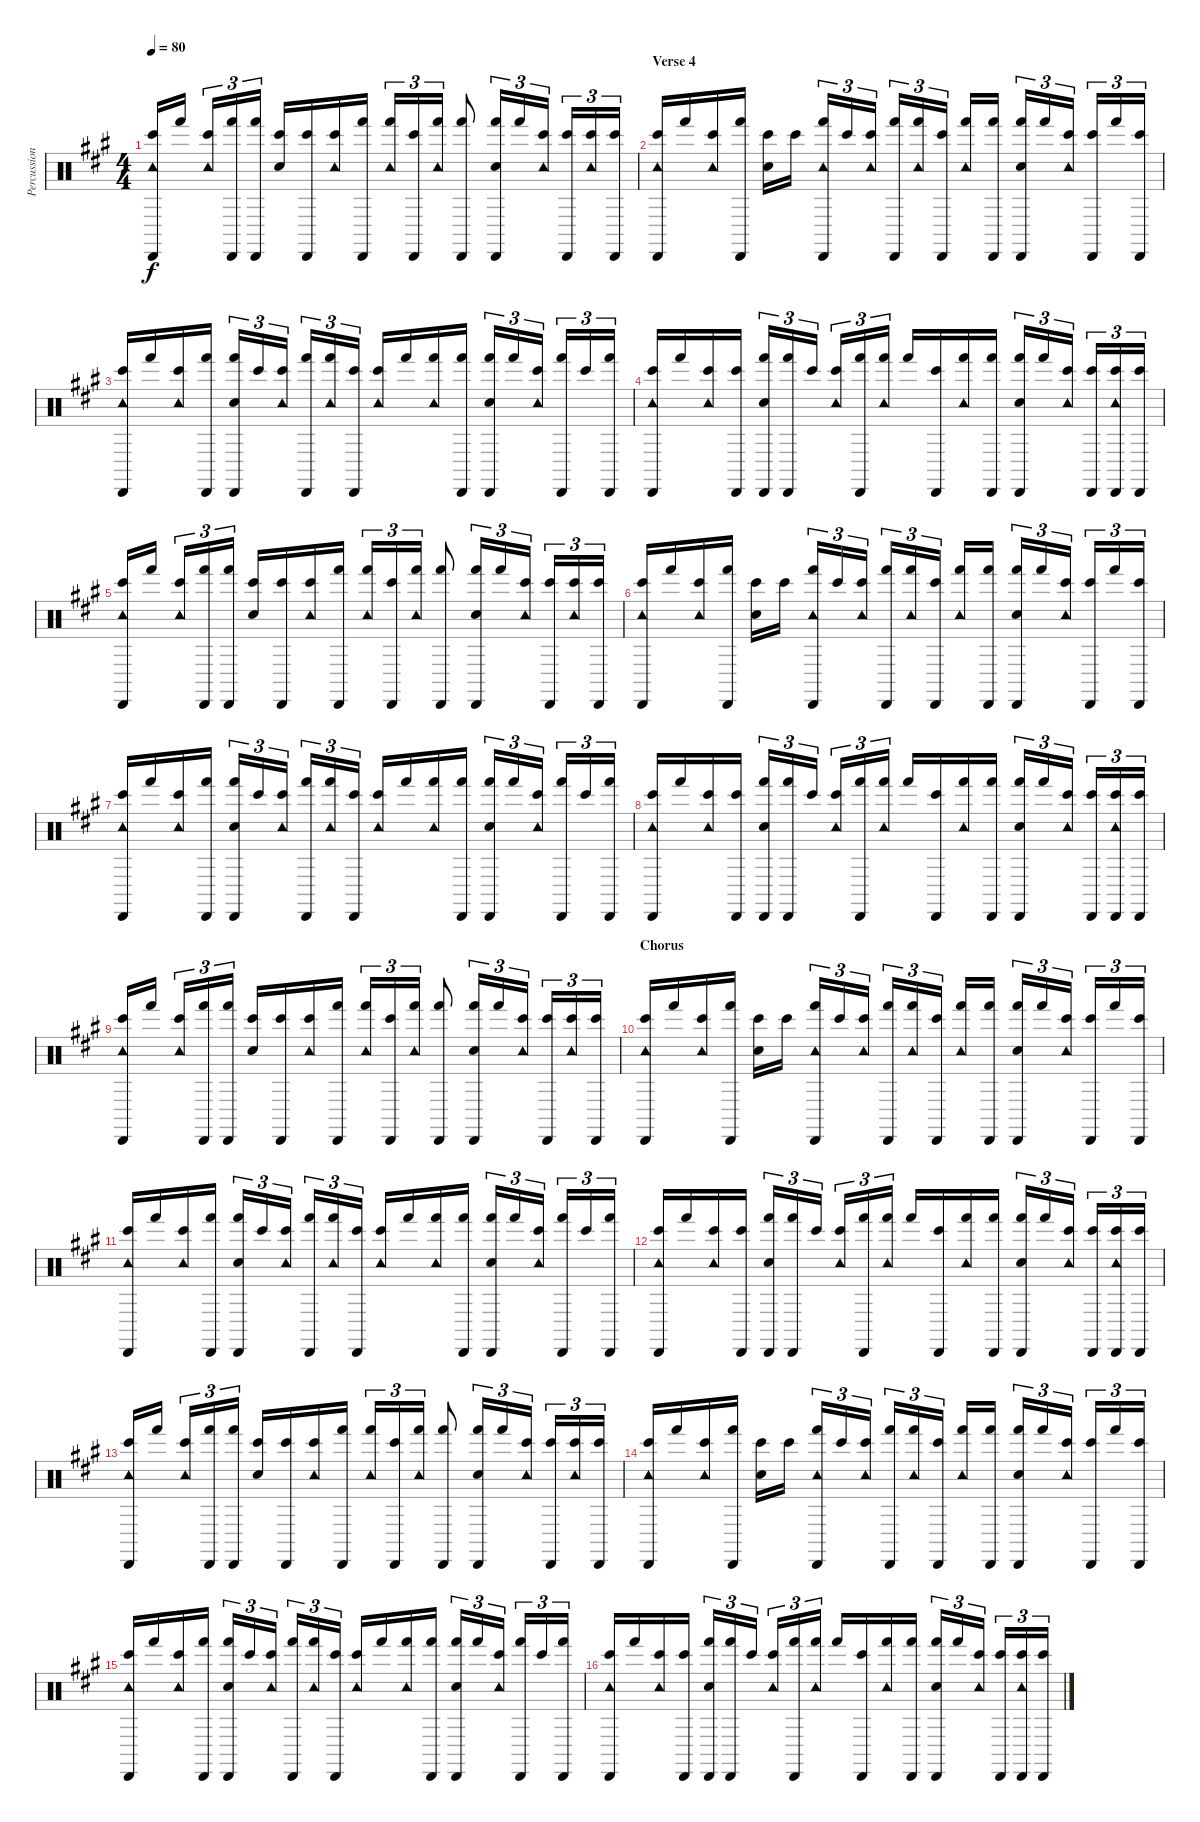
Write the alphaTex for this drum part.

\track ("Percussion" "Percussion") {instrument percussion}
\staff {score}
\articulation defaults
\ts (4 4)
\tempo 80
\clef neutral
\ks a
("Cabasa (hit)" "Tambourine (hit)" "Bongo High (hit)").16{dy f} "Hand (hit)".16 ("Tambourine (hit)" "Bongo High (hit)").16{tu (3 2)} ("Cabasa (hit)" "Hand (hit)").16{tu (3 2)} ("Cabasa (hit)" "Hand (hit)").16{tu (3 2)} ("Hand Clap (hit)" "Bongo High (hit)").16 ("Cabasa (hit)" "Bongo High (hit)").16 ("Tambourine (hit)" "Bongo High (hit)").16 ("Cabasa (hit)" "Hand (hit)").16 ("Tambourine (hit)" "Hand (hit)").16{tu (3 2)} ("Cabasa (hit)" "Bongo High (hit)").16{tu (3 2)} ("Tambourine (hit)" "Hand (hit)").16{tu (3 2)} ("Cabasa (hit)" "Hand (hit)").8 ("Cabasa (hit)" "Hand Clap (hit)" "Hand (hit)").16{tu (3 2)} "Hand (hit)".16{tu (3 2)} ("Tambourine (hit)" "Bongo High (hit)").16{tu (3 2)} ("Cabasa (hit)" "Bongo High (hit)").16{tu (3 2)} ("Tambourine (hit)" "Bongo High (hit)").16{tu (3 2)} ("Cabasa (hit)" "Bongo High (hit)").16{tu (3 2)} |
\section ("" "Verse 4")
("Cabasa (hit)" "Tambourine (hit)" "Bongo High (hit)").16 "Hand (hit)".16 ("Tambourine (hit)" "Bongo High (hit)").16 ("Cabasa (hit)" "Hand (hit)").16 ("Hand Clap (hit)" "Bongo High (hit)").16 "Bongo High (hit)".16 ("Cabasa (hit)" "Tambourine (hit)" "Hand (hit)").16{tu (3 2)} "Bongo High (hit)".16{tu (3 2)} ("Tambourine (hit)" "Bongo High (hit)").16{tu (3 2)} ("Cabasa (hit)" "Hand (hit)").16{tu (3 2)} ("Tambourine (hit)" "Hand (hit)").16{tu (3 2)} ("Cabasa (hit)" "Bongo High (hit)").16{tu (3 2)} ("Tambourine (hit)" "Hand (hit)").16 ("Cabasa (hit)" "Hand (hit)").16 ("Cabasa (hit)" "Hand Clap (hit)" "Hand (hit)").16{tu (3 2)} "Hand (hit)".16{tu (3 2)} ("Tambourine (hit)" "Bongo High (hit)").16{tu (3 2)} ("Cabasa (hit)" "Bongo High (hit)").16{tu (3 2)} "Hand (hit)".16{tu (3 2)} ("Cabasa (hit)" "Bongo High (hit)").16{tu (3 2)} |
("Cabasa (hit)" "Tambourine (hit)" "Bongo High (hit)").16 "Hand (hit)".16 ("Tambourine (hit)" "Bongo High (hit)").16 ("Cabasa (hit)" "Hand (hit)").16 ("Cabasa (hit)" "Hand Clap (hit)" "Hand (hit)").16{tu (3 2)} "Bongo High (hit)".16{tu (3 2)} ("Tambourine (hit)" "Bongo High (hit)").16{tu (3 2)} ("Cabasa (hit)" "Hand (hit)").16{tu (3 2)} ("Tambourine (hit)" "Hand (hit)").16{tu (3 2)} ("Cabasa (hit)" "Bongo High (hit)").16{tu (3 2)} ("Tambourine (hit)" "Bongo High (hit)").16 "Hand (hit)".16 ("Tambourine (hit)" "Hand (hit)").16 ("Cabasa (hit)" "Hand (hit)").16 ("Cabasa (hit)" "Hand Clap (hit)" "Hand (hit)").16{tu (3 2)} "Hand (hit)".16{tu (3 2)} ("Tambourine (hit)" "Bongo High (hit)").16{tu (3 2)} ("Cabasa (hit)" "Hand (hit)").16{tu (3 2)} "Bongo High (hit)".16{tu (3 2)} ("Cabasa (hit)" "Hand (hit)").16{tu (3 2)} |
("Cabasa (hit)" "Tambourine (hit)" "Bongo High (hit)").16 "Hand (hit)".16 ("Tambourine (hit)" "Bongo High (hit)").16 ("Cabasa (hit)" "Bongo High (hit)").16 ("Cabasa (hit)" "Hand Clap (hit)" "Hand (hit)").16{tu (3 2)} ("Cabasa (hit)" "Hand (hit)").16{tu (3 2)} "Bongo High (hit)".16{tu (3 2)} ("Tambourine (hit)" "Bongo High (hit)").16{tu (3 2)} ("Cabasa (hit)" "Hand (hit)").16{tu (3 2)} ("Tambourine (hit)" "Hand (hit)").16{tu (3 2)} "Hand (hit)".16 ("Cabasa (hit)" "Bongo High (hit)").16 ("Tambourine (hit)" "Hand (hit)").16 ("Cabasa (hit)" "Hand (hit)").16 ("Cabasa (hit)" "Hand Clap (hit)" "Hand (hit)").16{tu (3 2)} "Hand (hit)".16{tu (3 2)} ("Tambourine (hit)" "Bongo High (hit)").16{tu (3 2)} ("Cabasa (hit)" "Bongo High (hit)").16{tu (3 2)} ("Cabasa (hit)" "Tambourine (hit)" "Bongo High (hit)").16{tu (3 2)} ("Cabasa (hit)" "Bongo High (hit)").16{tu (3 2)} |
("Cabasa (hit)" "Tambourine (hit)" "Bongo High (hit)").16 "Hand (hit)".16 ("Tambourine (hit)" "Bongo High (hit)").16{tu (3 2)} ("Cabasa (hit)" "Hand (hit)").16{tu (3 2)} ("Cabasa (hit)" "Hand (hit)").16{tu (3 2)} ("Hand Clap (hit)" "Bongo High (hit)").16 ("Cabasa (hit)" "Bongo High (hit)").16 ("Tambourine (hit)" "Bongo High (hit)").16 ("Cabasa (hit)" "Hand (hit)").16 ("Tambourine (hit)" "Hand (hit)").16{tu (3 2)} ("Cabasa (hit)" "Bongo High (hit)").16{tu (3 2)} ("Tambourine (hit)" "Hand (hit)").16{tu (3 2)} ("Cabasa (hit)" "Hand (hit)").8 ("Cabasa (hit)" "Hand Clap (hit)" "Hand (hit)").16{tu (3 2)} "Hand (hit)".16{tu (3 2)} ("Tambourine (hit)" "Bongo High (hit)").16{tu (3 2)} ("Cabasa (hit)" "Bongo High (hit)").16{tu (3 2)} ("Tambourine (hit)" "Bongo High (hit)").16{tu (3 2)} ("Cabasa (hit)" "Bongo High (hit)").16{tu (3 2)} |
("Cabasa (hit)" "Tambourine (hit)" "Bongo High (hit)").16 "Hand (hit)".16 ("Tambourine (hit)" "Bongo High (hit)").16 ("Cabasa (hit)" "Hand (hit)").16 ("Hand Clap (hit)" "Bongo High (hit)").16 "Bongo High (hit)".16 ("Cabasa (hit)" "Tambourine (hit)" "Hand (hit)").16{tu (3 2)} "Bongo High (hit)".16{tu (3 2)} ("Tambourine (hit)" "Bongo High (hit)").16{tu (3 2)} ("Cabasa (hit)" "Hand (hit)").16{tu (3 2)} ("Tambourine (hit)" "Hand (hit)").16{tu (3 2)} ("Cabasa (hit)" "Bongo High (hit)").16{tu (3 2)} ("Tambourine (hit)" "Hand (hit)").16 ("Cabasa (hit)" "Hand (hit)").16 ("Cabasa (hit)" "Hand Clap (hit)" "Hand (hit)").16{tu (3 2)} "Hand (hit)".16{tu (3 2)} ("Tambourine (hit)" "Bongo High (hit)").16{tu (3 2)} ("Cabasa (hit)" "Bongo High (hit)").16{tu (3 2)} "Hand (hit)".16{tu (3 2)} ("Cabasa (hit)" "Bongo High (hit)").16{tu (3 2)} |
("Cabasa (hit)" "Tambourine (hit)" "Bongo High (hit)").16 "Hand (hit)".16 ("Tambourine (hit)" "Bongo High (hit)").16 ("Cabasa (hit)" "Hand (hit)").16 ("Cabasa (hit)" "Hand Clap (hit)" "Hand (hit)").16{tu (3 2)} "Bongo High (hit)".16{tu (3 2)} ("Tambourine (hit)" "Bongo High (hit)").16{tu (3 2)} ("Cabasa (hit)" "Hand (hit)").16{tu (3 2)} ("Tambourine (hit)" "Hand (hit)").16{tu (3 2)} ("Cabasa (hit)" "Bongo High (hit)").16{tu (3 2)} ("Tambourine (hit)" "Bongo High (hit)").16 "Hand (hit)".16 ("Tambourine (hit)" "Hand (hit)").16 ("Cabasa (hit)" "Hand (hit)").16 ("Cabasa (hit)" "Hand Clap (hit)" "Hand (hit)").16{tu (3 2)} "Hand (hit)".16{tu (3 2)} ("Tambourine (hit)" "Bongo High (hit)").16{tu (3 2)} ("Cabasa (hit)" "Hand (hit)").16{tu (3 2)} "Bongo High (hit)".16{tu (3 2)} ("Cabasa (hit)" "Hand (hit)").16{tu (3 2)} |
("Cabasa (hit)" "Tambourine (hit)" "Bongo High (hit)").16 "Hand (hit)".16 ("Tambourine (hit)" "Bongo High (hit)").16 ("Cabasa (hit)" "Bongo High (hit)").16 ("Cabasa (hit)" "Hand Clap (hit)" "Hand (hit)").16{tu (3 2)} ("Cabasa (hit)" "Hand (hit)").16{tu (3 2)} "Bongo High (hit)".16{tu (3 2)} ("Tambourine (hit)" "Bongo High (hit)").16{tu (3 2)} ("Cabasa (hit)" "Hand (hit)").16{tu (3 2)} ("Tambourine (hit)" "Hand (hit)").16{tu (3 2)} "Hand (hit)".16 ("Cabasa (hit)" "Bongo High (hit)").16 ("Tambourine (hit)" "Hand (hit)").16 ("Cabasa (hit)" "Hand (hit)").16 ("Cabasa (hit)" "Hand Clap (hit)" "Hand (hit)").16{tu (3 2)} "Hand (hit)".16{tu (3 2)} ("Tambourine (hit)" "Bongo High (hit)").16{tu (3 2)} ("Cabasa (hit)" "Bongo High (hit)").16{tu (3 2)} ("Cabasa (hit)" "Tambourine (hit)" "Bongo High (hit)").16{tu (3 2)} ("Cabasa (hit)" "Bongo High (hit)").16{tu (3 2)} |
("Cabasa (hit)" "Tambourine (hit)" "Bongo High (hit)").16 "Hand (hit)".16 ("Tambourine (hit)" "Bongo High (hit)").16{tu (3 2)} ("Cabasa (hit)" "Hand (hit)").16{tu (3 2)} ("Cabasa (hit)" "Hand (hit)").16{tu (3 2)} ("Hand Clap (hit)" "Bongo High (hit)").16 ("Cabasa (hit)" "Bongo High (hit)").16 ("Tambourine (hit)" "Bongo High (hit)").16 ("Cabasa (hit)" "Hand (hit)").16 ("Tambourine (hit)" "Hand (hit)").16{tu (3 2)} ("Cabasa (hit)" "Bongo High (hit)").16{tu (3 2)} ("Tambourine (hit)" "Hand (hit)").16{tu (3 2)} ("Cabasa (hit)" "Hand (hit)").8 ("Cabasa (hit)" "Hand Clap (hit)" "Hand (hit)").16{tu (3 2)} "Hand (hit)".16{tu (3 2)} ("Tambourine (hit)" "Bongo High (hit)").16{tu (3 2)} ("Cabasa (hit)" "Bongo High (hit)").16{tu (3 2)} ("Tambourine (hit)" "Bongo High (hit)").16{tu (3 2)} ("Cabasa (hit)" "Bongo High (hit)").16{tu (3 2)} |
\section ("" "Chorus")
("Cabasa (hit)" "Tambourine (hit)" "Bongo High (hit)").16 "Hand (hit)".16 ("Tambourine (hit)" "Bongo High (hit)").16 ("Cabasa (hit)" "Hand (hit)").16 ("Hand Clap (hit)" "Bongo High (hit)").16 "Bongo High (hit)".16 ("Cabasa (hit)" "Tambourine (hit)" "Hand (hit)").16{tu (3 2)} "Bongo High (hit)".16{tu (3 2)} ("Tambourine (hit)" "Bongo High (hit)").16{tu (3 2)} ("Cabasa (hit)" "Hand (hit)").16{tu (3 2)} ("Tambourine (hit)" "Hand (hit)").16{tu (3 2)} ("Cabasa (hit)" "Bongo High (hit)").16{tu (3 2)} ("Tambourine (hit)" "Hand (hit)").16 ("Cabasa (hit)" "Hand (hit)").16 ("Cabasa (hit)" "Hand Clap (hit)" "Hand (hit)").16{tu (3 2)} "Hand (hit)".16{tu (3 2)} ("Tambourine (hit)" "Bongo High (hit)").16{tu (3 2)} ("Cabasa (hit)" "Bongo High (hit)").16{tu (3 2)} "Hand (hit)".16{tu (3 2)} ("Cabasa (hit)" "Bongo High (hit)").16{tu (3 2)} |
("Cabasa (hit)" "Tambourine (hit)" "Bongo High (hit)").16 "Hand (hit)".16 ("Tambourine (hit)" "Bongo High (hit)").16 ("Cabasa (hit)" "Hand (hit)").16 ("Cabasa (hit)" "Hand Clap (hit)" "Hand (hit)").16{tu (3 2)} "Bongo High (hit)".16{tu (3 2)} ("Tambourine (hit)" "Bongo High (hit)").16{tu (3 2)} ("Cabasa (hit)" "Hand (hit)").16{tu (3 2)} ("Tambourine (hit)" "Hand (hit)").16{tu (3 2)} ("Cabasa (hit)" "Bongo High (hit)").16{tu (3 2)} ("Tambourine (hit)" "Bongo High (hit)").16 "Hand (hit)".16 ("Tambourine (hit)" "Hand (hit)").16 ("Cabasa (hit)" "Hand (hit)").16 ("Cabasa (hit)" "Hand Clap (hit)" "Hand (hit)").16{tu (3 2)} "Hand (hit)".16{tu (3 2)} ("Tambourine (hit)" "Bongo High (hit)").16{tu (3 2)} ("Cabasa (hit)" "Hand (hit)").16{tu (3 2)} "Bongo High (hit)".16{tu (3 2)} ("Cabasa (hit)" "Hand (hit)").16{tu (3 2)} |
("Cabasa (hit)" "Tambourine (hit)" "Bongo High (hit)").16 "Hand (hit)".16 ("Tambourine (hit)" "Bongo High (hit)").16 ("Cabasa (hit)" "Bongo High (hit)").16 ("Cabasa (hit)" "Hand Clap (hit)" "Hand (hit)").16{tu (3 2)} ("Cabasa (hit)" "Hand (hit)").16{tu (3 2)} "Bongo High (hit)".16{tu (3 2)} ("Tambourine (hit)" "Bongo High (hit)").16{tu (3 2)} ("Cabasa (hit)" "Hand (hit)").16{tu (3 2)} ("Tambourine (hit)" "Hand (hit)").16{tu (3 2)} "Hand (hit)".16 ("Cabasa (hit)" "Bongo High (hit)").16 ("Tambourine (hit)" "Hand (hit)").16 ("Cabasa (hit)" "Hand (hit)").16 ("Cabasa (hit)" "Hand Clap (hit)" "Hand (hit)").16{tu (3 2)} "Hand (hit)".16{tu (3 2)} ("Tambourine (hit)" "Bongo High (hit)").16{tu (3 2)} ("Cabasa (hit)" "Bongo High (hit)").16{tu (3 2)} ("Cabasa (hit)" "Tambourine (hit)" "Bongo High (hit)").16{tu (3 2)} ("Cabasa (hit)" "Bongo High (hit)").16{tu (3 2)} |
("Cabasa (hit)" "Tambourine (hit)" "Bongo High (hit)").16 "Hand (hit)".16 ("Tambourine (hit)" "Bongo High (hit)").16{tu (3 2)} ("Cabasa (hit)" "Hand (hit)").16{tu (3 2)} ("Cabasa (hit)" "Hand (hit)").16{tu (3 2)} ("Hand Clap (hit)" "Bongo High (hit)").16 ("Cabasa (hit)" "Bongo High (hit)").16 ("Tambourine (hit)" "Bongo High (hit)").16 ("Cabasa (hit)" "Hand (hit)").16 ("Tambourine (hit)" "Hand (hit)").16{tu (3 2)} ("Cabasa (hit)" "Bongo High (hit)").16{tu (3 2)} ("Tambourine (hit)" "Hand (hit)").16{tu (3 2)} ("Cabasa (hit)" "Hand (hit)").8 ("Cabasa (hit)" "Hand Clap (hit)" "Hand (hit)").16{tu (3 2)} "Hand (hit)".16{tu (3 2)} ("Tambourine (hit)" "Bongo High (hit)").16{tu (3 2)} ("Cabasa (hit)" "Bongo High (hit)").16{tu (3 2)} ("Tambourine (hit)" "Bongo High (hit)").16{tu (3 2)} ("Cabasa (hit)" "Bongo High (hit)").16{tu (3 2)} |
("Cabasa (hit)" "Tambourine (hit)" "Bongo High (hit)").16 "Hand (hit)".16 ("Tambourine (hit)" "Bongo High (hit)").16 ("Cabasa (hit)" "Hand (hit)").16 ("Hand Clap (hit)" "Bongo High (hit)").16 "Bongo High (hit)".16 ("Cabasa (hit)" "Tambourine (hit)" "Hand (hit)").16{tu (3 2)} "Bongo High (hit)".16{tu (3 2)} ("Tambourine (hit)" "Bongo High (hit)").16{tu (3 2)} ("Cabasa (hit)" "Hand (hit)").16{tu (3 2)} ("Tambourine (hit)" "Hand (hit)").16{tu (3 2)} ("Cabasa (hit)" "Bongo High (hit)").16{tu (3 2)} ("Tambourine (hit)" "Hand (hit)").16 ("Cabasa (hit)" "Hand (hit)").16 ("Cabasa (hit)" "Hand Clap (hit)" "Hand (hit)").16{tu (3 2)} "Hand (hit)".16{tu (3 2)} ("Tambourine (hit)" "Bongo High (hit)").16{tu (3 2)} ("Cabasa (hit)" "Bongo High (hit)").16{tu (3 2)} "Hand (hit)".16{tu (3 2)} ("Cabasa (hit)" "Bongo High (hit)").16{tu (3 2)} |
("Cabasa (hit)" "Tambourine (hit)" "Bongo High (hit)").16 "Hand (hit)".16 ("Tambourine (hit)" "Bongo High (hit)").16 ("Cabasa (hit)" "Hand (hit)").16 ("Cabasa (hit)" "Hand Clap (hit)" "Hand (hit)").16{tu (3 2)} "Bongo High (hit)".16{tu (3 2)} ("Tambourine (hit)" "Bongo High (hit)").16{tu (3 2)} ("Cabasa (hit)" "Hand (hit)").16{tu (3 2)} ("Tambourine (hit)" "Hand (hit)").16{tu (3 2)} ("Cabasa (hit)" "Bongo High (hit)").16{tu (3 2)} ("Tambourine (hit)" "Bongo High (hit)").16 "Hand (hit)".16 ("Tambourine (hit)" "Hand (hit)").16 ("Cabasa (hit)" "Hand (hit)").16 ("Cabasa (hit)" "Hand Clap (hit)" "Hand (hit)").16{tu (3 2)} "Hand (hit)".16{tu (3 2)} ("Tambourine (hit)" "Bongo High (hit)").16{tu (3 2)} ("Cabasa (hit)" "Hand (hit)").16{tu (3 2)} "Bongo High (hit)".16{tu (3 2)} ("Cabasa (hit)" "Hand (hit)").16{tu (3 2)} |
("Cabasa (hit)" "Tambourine (hit)" "Bongo High (hit)").16 "Hand (hit)".16 ("Tambourine (hit)" "Bongo High (hit)").16 ("Cabasa (hit)" "Bongo High (hit)").16 ("Cabasa (hit)" "Hand Clap (hit)" "Hand (hit)").16{tu (3 2)} ("Cabasa (hit)" "Hand (hit)").16{tu (3 2)} "Bongo High (hit)".16{tu (3 2)} ("Tambourine (hit)" "Bongo High (hit)").16{tu (3 2)} ("Cabasa (hit)" "Hand (hit)").16{tu (3 2)} ("Tambourine (hit)" "Hand (hit)").16{tu (3 2)} "Hand (hit)".16 ("Cabasa (hit)" "Bongo High (hit)").16 ("Tambourine (hit)" "Hand (hit)").16 ("Cabasa (hit)" "Hand (hit)").16 ("Cabasa (hit)" "Hand Clap (hit)" "Hand (hit)").16{tu (3 2)} "Hand (hit)".16{tu (3 2)} ("Tambourine (hit)" "Bongo High (hit)").16{tu (3 2)} ("Cabasa (hit)" "Bongo High (hit)").16{tu (3 2)} ("Cabasa (hit)" "Tambourine (hit)" "Bongo High (hit)").16{tu (3 2)} ("Cabasa (hit)" "Bongo High (hit)").16{tu (3 2)}
